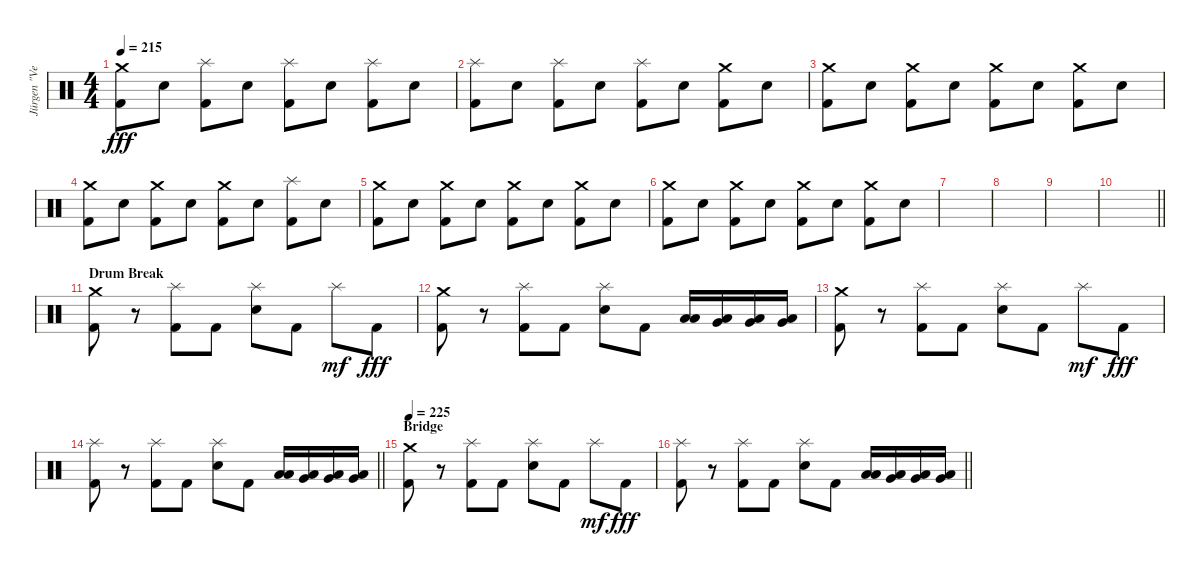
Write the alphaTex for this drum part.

\track ("Jürgen \"Ventor\" Reil" "Jürgen \"Ve") {instrument percussion}
\staff {score}
\articulation defaults
\ts (4 4)
\tempo 215
\clef neutral
\ks c
("Crash medium (hit)" "Kick (hit) 2").8{dy fff} "Electric Snare (hit)".8 ("Splash (hit)" "Kick (hit) 2").8 "Electric Snare (hit)".8 ("Splash (hit)" "Kick (hit) 2").8 "Electric Snare (hit)".8 ("Splash (hit)" "Kick (hit) 2").8 "Electric Snare (hit)".8 |
("Splash (hit)" "Kick (hit) 2").8 "Electric Snare (hit)".8 ("Splash (hit)" "Kick (hit) 2").8 "Electric Snare (hit)".8 ("Splash (hit)" "Kick (hit) 2").8 "Electric Snare (hit)".8 ("Crash medium (hit)" "Kick (hit) 2").8 "Electric Snare (hit)".8 |
("Crash medium (hit)" "Kick (hit) 2").8 "Electric Snare (hit)".8 ("Crash medium (hit)" "Kick (hit) 2").8 "Electric Snare (hit)".8 ("Crash medium (hit)" "Kick (hit) 2").8 "Electric Snare (hit)".8 ("Crash medium (hit)" "Kick (hit) 2").8 "Electric Snare (hit)".8 |
("Crash medium (hit)" "Kick (hit) 2").8 "Electric Snare (hit)".8 ("Crash medium (hit)" "Kick (hit) 2").8 "Electric Snare (hit)".8 ("Crash medium (hit)" "Kick (hit) 2").8 "Electric Snare (hit)".8 ("Splash (hit)" "Kick (hit) 2").8 "Electric Snare (hit)".8 |
("Crash medium (hit)" "Kick (hit) 2").8 "Electric Snare (hit)".8 ("Crash medium (hit)" "Kick (hit) 2").8 "Electric Snare (hit)".8 ("Crash medium (hit)" "Kick (hit) 2").8 "Electric Snare (hit)".8 ("Crash medium (hit)" "Kick (hit) 2").8 "Electric Snare (hit)".8 |
("Crash medium (hit)" "Kick (hit) 2").8 "Electric Snare (hit)".8 ("Crash medium (hit)" "Kick (hit) 2").8 "Electric Snare (hit)".8 ("Crash medium (hit)" "Kick (hit) 2").8 "Electric Snare (hit)".8 ("Crash medium (hit)" "Kick (hit) 2").8 "Electric Snare (hit)".8 |
|
|
|
\barLineRight lightlight
|
\section ("" "Drum Break")
("Crash medium (hit)" "Kick (hit) 2").8 r.8 ("Splash (hit)" "Kick (hit) 2").8 "Kick (hit) 2".8 ("Splash (hit)" "Electric Snare (hit)").8 "Kick (hit) 2".8 "Splash (hit)".8{dy mf} "Kick (hit) 2".8{dy fff} |
("Crash medium (hit)" "Kick (hit) 2").8 r.8 ("Splash (hit)" "Kick (hit) 2").8 "Kick (hit) 2".8 ("Splash (hit)" "Electric Snare (hit)").8 "Kick (hit) 2".8 ("Low Tom (hit)" "Low Floor Tom (hit)").16 ("Very Low Tom (hit)" "Low Tom (hit)").16 ("Low Floor Tom (hit)" "Very Low Tom (hit)").16 ("Very Low Tom (hit)" "Low Floor Tom (hit)").16 |
("Crash medium (hit)" "Kick (hit) 2").8 r.8 ("Splash (hit)" "Kick (hit) 2").8 "Kick (hit) 2".8 ("Splash (hit)" "Electric Snare (hit)").8 "Kick (hit) 2".8 "Splash (hit)".8{dy mf} "Kick (hit) 2".8{dy fff} |
\barLineRight lightlight
("Splash (hit)" "Kick (hit) 2").8 r.8 ("Splash (hit)" "Kick (hit) 2").8 "Kick (hit) 2".8 ("Splash (hit)" "Electric Snare (hit)").8 "Kick (hit) 2".8 ("Low Tom (hit)" "Low Floor Tom (hit)").16 ("Very Low Tom (hit)" "Low Tom (hit)").16 ("Low Floor Tom (hit)" "Very Low Tom (hit)").16 ("Very Low Tom (hit)" "Low Floor Tom (hit)").16 |
\section ("" "Bridge")
\tempo 225
("Crash medium (hit)" "Kick (hit) 2").8 r.8 ("Splash (hit)" "Kick (hit) 2").8 "Kick (hit) 2".8 ("Splash (hit)" "Electric Snare (hit)").8 "Kick (hit) 2".8 "Splash (hit)".8{dy mf} "Kick (hit) 2".8{dy fff} |
\barLineRight lightlight
("Splash (hit)" "Kick (hit) 2").8 r.8 ("Splash (hit)" "Kick (hit) 2").8 "Kick (hit) 2".8 ("Splash (hit)" "Electric Snare (hit)").8 "Kick (hit) 2".8 ("Low Tom (hit)" "Low Floor Tom (hit)").16 ("Very Low Tom (hit)" "Low Tom (hit)").16 ("Low Floor Tom (hit)" "Very Low Tom (hit)").16 ("Very Low Tom (hit)" "Low Floor Tom (hit)").16
